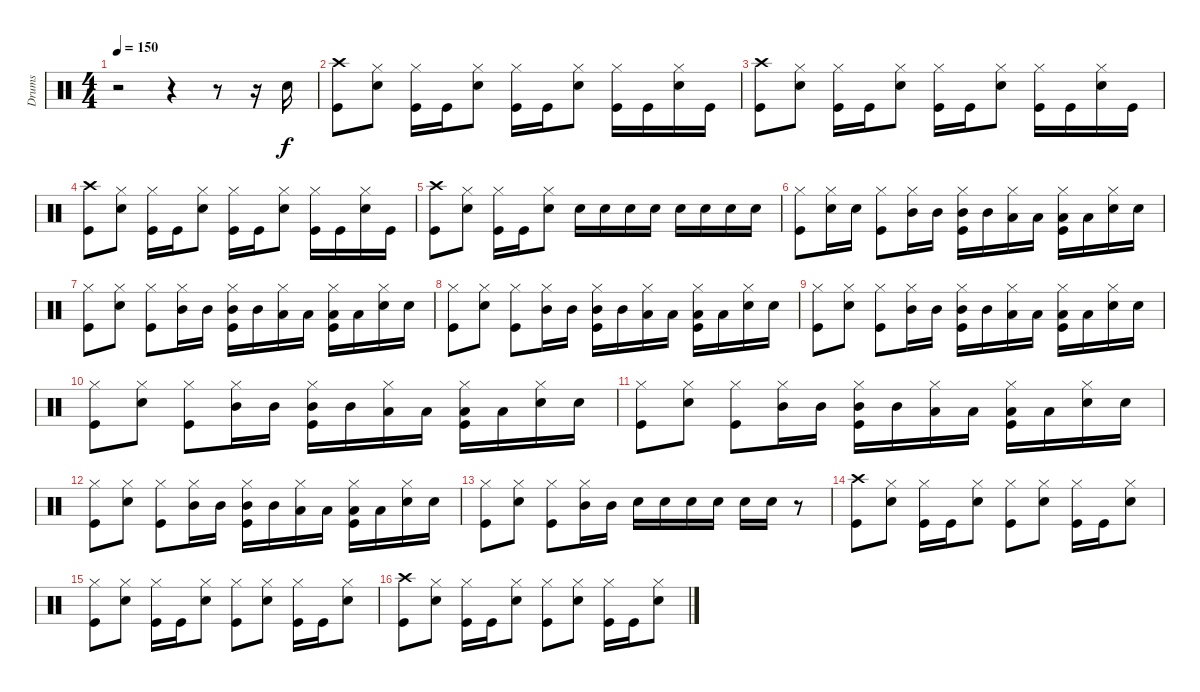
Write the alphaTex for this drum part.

\track ("Drums" "Drums") {instrument percussion}
\staff {score}
\articulation defaults
\ts (4 4)
\tempo 150
\clef neutral
\ks c
r.2{dy f} r.4 r.8 r.16 "Electric Snare (hit)".16 |
("Crash high (hit)" "Kick (hit)").8 ("Hi-Hat (closed)" "Electric Snare (hit)").8 ("Hi-Hat (closed)" "Kick (hit)").16 "Kick (hit)".16 ("Hi-Hat (closed)" "Electric Snare (hit)").8 ("Hi-Hat (closed)" "Kick (hit)").16 "Kick (hit)".16 ("Hi-Hat (closed)" "Electric Snare (hit)").8 ("Hi-Hat (closed)" "Kick (hit)").16 "Kick (hit)".16 ("Hi-Hat (closed)" "Electric Snare (hit)").16 "Kick (hit)".16 |
("Crash high (hit)" "Kick (hit)").8 ("Hi-Hat (closed)" "Electric Snare (hit)").8 ("Hi-Hat (closed)" "Kick (hit)").16 "Kick (hit)".16 ("Hi-Hat (closed)" "Electric Snare (hit)").8 ("Hi-Hat (closed)" "Kick (hit)").16 "Kick (hit)".16 ("Hi-Hat (closed)" "Electric Snare (hit)").8 ("Hi-Hat (closed)" "Kick (hit)").16 "Kick (hit)".16 ("Hi-Hat (closed)" "Electric Snare (hit)").16 "Kick (hit)".16 |
("Crash high (hit)" "Kick (hit)").8 ("Hi-Hat (closed)" "Electric Snare (hit)").8 ("Hi-Hat (closed)" "Kick (hit)").16 "Kick (hit)".16 ("Hi-Hat (closed)" "Electric Snare (hit)").8 ("Hi-Hat (closed)" "Kick (hit)").16 "Kick (hit)".16 ("Hi-Hat (closed)" "Electric Snare (hit)").8 ("Hi-Hat (closed)" "Kick (hit)").16 "Kick (hit)".16 ("Hi-Hat (closed)" "Electric Snare (hit)").16 "Kick (hit)".16 |
("Crash high (hit)" "Kick (hit)").8 ("Hi-Hat (closed)" "Electric Snare (hit)").8 ("Hi-Hat (closed)" "Kick (hit)").16 "Kick (hit)".16 ("Hi-Hat (closed)" "Electric Snare (hit)").8 "Electric Snare (hit)".16 "Electric Snare (hit)".16 "Electric Snare (hit)".16 "Electric Snare (hit)".16 "Electric Snare (hit)".16 "Electric Snare (hit)".16 "Electric Snare (hit)".16 "Electric Snare (hit)".16 |
("Hi-Hat (closed)" "Kick (hit)").8 ("Hi-Hat (closed)" "Electric Snare (hit)").16 "Electric Snare (hit)".16 ("Hi-Hat (closed)" "Kick (hit)").8 ("Hi-Hat (closed)" "Mid Tom (hit)").16 "Mid Tom (hit)".16 ("Hi-Hat (closed)" "Mid Tom (hit)" "Kick (hit)").16 "Mid Tom (hit)".16 ("Hi-Hat (closed)" "Low Tom (hit)").16 "Low Tom (hit)".16 ("Hi-Hat (closed)" "Low Tom (hit)" "Kick (hit)").16 "Low Tom (hit)".16 ("Hi-Hat (closed)" "Electric Snare (hit)").16 "Electric Snare (hit)".16 |
("Hi-Hat (closed)" "Kick (hit)").8 ("Hi-Hat (closed)" "Electric Snare (hit)").8 ("Hi-Hat (closed)" "Kick (hit)").8 ("Hi-Hat (closed)" "Mid Tom (hit)").16 "Mid Tom (hit)".16 ("Hi-Hat (closed)" "Mid Tom (hit)" "Kick (hit)").16 "Mid Tom (hit)".16 ("Hi-Hat (closed)" "Low Tom (hit)").16 "Low Tom (hit)".16 ("Hi-Hat (closed)" "Low Tom (hit)" "Kick (hit)").16 "Low Tom (hit)".16 ("Hi-Hat (closed)" "Electric Snare (hit)").16 "Electric Snare (hit)".16 |
("Hi-Hat (closed)" "Kick (hit)").8 ("Hi-Hat (closed)" "Electric Snare (hit)").8 ("Hi-Hat (closed)" "Kick (hit)").8 ("Hi-Hat (closed)" "Mid Tom (hit)").16 "Mid Tom (hit)".16 ("Hi-Hat (closed)" "Mid Tom (hit)" "Kick (hit)").16 "Mid Tom (hit)".16 ("Hi-Hat (closed)" "Low Tom (hit)").16 "Low Tom (hit)".16 ("Hi-Hat (closed)" "Low Tom (hit)" "Kick (hit)").16 "Low Tom (hit)".16 ("Hi-Hat (closed)" "Electric Snare (hit)").16 "Electric Snare (hit)".16 |
("Hi-Hat (closed)" "Kick (hit)").8 ("Hi-Hat (closed)" "Electric Snare (hit)").8 ("Hi-Hat (closed)" "Kick (hit)").8 ("Hi-Hat (closed)" "Mid Tom (hit)").16 "Mid Tom (hit)".16 ("Hi-Hat (closed)" "Mid Tom (hit)" "Kick (hit)").16 "Mid Tom (hit)".16 ("Hi-Hat (closed)" "Low Tom (hit)").16 "Low Tom (hit)".16 ("Hi-Hat (closed)" "Low Tom (hit)" "Kick (hit)").16 "Low Tom (hit)".16 ("Hi-Hat (closed)" "Electric Snare (hit)").16 "Electric Snare (hit)".16 |
("Hi-Hat (closed)" "Kick (hit)").8 ("Hi-Hat (closed)" "Electric Snare (hit)").8 ("Hi-Hat (closed)" "Kick (hit)").8 ("Hi-Hat (closed)" "Mid Tom (hit)").16 "Mid Tom (hit)".16 ("Hi-Hat (closed)" "Mid Tom (hit)" "Kick (hit)").16 "Mid Tom (hit)".16 ("Hi-Hat (closed)" "Low Tom (hit)").16 "Low Tom (hit)".16 ("Hi-Hat (closed)" "Low Tom (hit)" "Kick (hit)").16 "Low Tom (hit)".16 ("Hi-Hat (closed)" "Electric Snare (hit)").16 "Electric Snare (hit)".16 |
("Hi-Hat (closed)" "Kick (hit)").8 ("Hi-Hat (closed)" "Electric Snare (hit)").8 ("Hi-Hat (closed)" "Kick (hit)").8 ("Hi-Hat (closed)" "Mid Tom (hit)").16 "Mid Tom (hit)".16 ("Hi-Hat (closed)" "Mid Tom (hit)" "Kick (hit)").16 "Mid Tom (hit)".16 ("Hi-Hat (closed)" "Low Tom (hit)").16 "Low Tom (hit)".16 ("Hi-Hat (closed)" "Low Tom (hit)" "Kick (hit)").16 "Low Tom (hit)".16 ("Hi-Hat (closed)" "Electric Snare (hit)").16 "Electric Snare (hit)".16 |
("Hi-Hat (closed)" "Kick (hit)").8 ("Hi-Hat (closed)" "Electric Snare (hit)").8 ("Hi-Hat (closed)" "Kick (hit)").8 ("Hi-Hat (closed)" "Mid Tom (hit)").16 "Mid Tom (hit)".16 ("Hi-Hat (closed)" "Mid Tom (hit)" "Kick (hit)").16 "Mid Tom (hit)".16 ("Hi-Hat (closed)" "Low Tom (hit)").16 "Low Tom (hit)".16 ("Hi-Hat (closed)" "Low Tom (hit)" "Kick (hit)").16 "Low Tom (hit)".16 ("Hi-Hat (closed)" "Electric Snare (hit)").16 "Electric Snare (hit)".16 |
("Hi-Hat (closed)" "Kick (hit)").8 ("Hi-Hat (closed)" "Electric Snare (hit)").8 ("Hi-Hat (closed)" "Kick (hit)").8 ("Hi-Hat (closed)" "Mid Tom (hit)").16 "Mid Tom (hit)".16 "Electric Snare (hit)".16 "Electric Snare (hit)".16 "Electric Snare (hit)".16 "Electric Snare (hit)".16 "Electric Snare (hit)".16 "Electric Snare (hit)".16 r.8 |
("Crash high (hit)" "Kick (hit)").8 ("Hi-Hat (closed)" "Electric Snare (hit)").8 ("Hi-Hat (closed)" "Kick (hit)").16 "Kick (hit)".16 ("Hi-Hat (closed)" "Electric Snare (hit)").8 ("Hi-Hat (closed)" "Kick (hit)").8 ("Hi-Hat (closed)" "Electric Snare (hit)").8 ("Hi-Hat (closed)" "Kick (hit)").16 "Kick (hit)".16 ("Hi-Hat (closed)" "Electric Snare (hit)").8 |
("Hi-Hat (closed)" "Kick (hit)").8 ("Hi-Hat (closed)" "Electric Snare (hit)").8 ("Hi-Hat (closed)" "Kick (hit)").16 "Kick (hit)".16 ("Hi-Hat (closed)" "Electric Snare (hit)").8 ("Hi-Hat (closed)" "Kick (hit)").8 ("Hi-Hat (closed)" "Electric Snare (hit)").8 ("Hi-Hat (closed)" "Kick (hit)").16 "Kick (hit)".16 ("Hi-Hat (closed)" "Electric Snare (hit)").8 |
("Crash high (hit)" "Kick (hit)").8 ("Hi-Hat (closed)" "Electric Snare (hit)").8 ("Hi-Hat (closed)" "Kick (hit)").16 "Kick (hit)".16 ("Hi-Hat (closed)" "Electric Snare (hit)").8 ("Hi-Hat (closed)" "Kick (hit)").8 ("Hi-Hat (closed)" "Electric Snare (hit)").8 ("Hi-Hat (closed)" "Kick (hit)").16 "Kick (hit)".16 ("Hi-Hat (closed)" "Electric Snare (hit)").8
